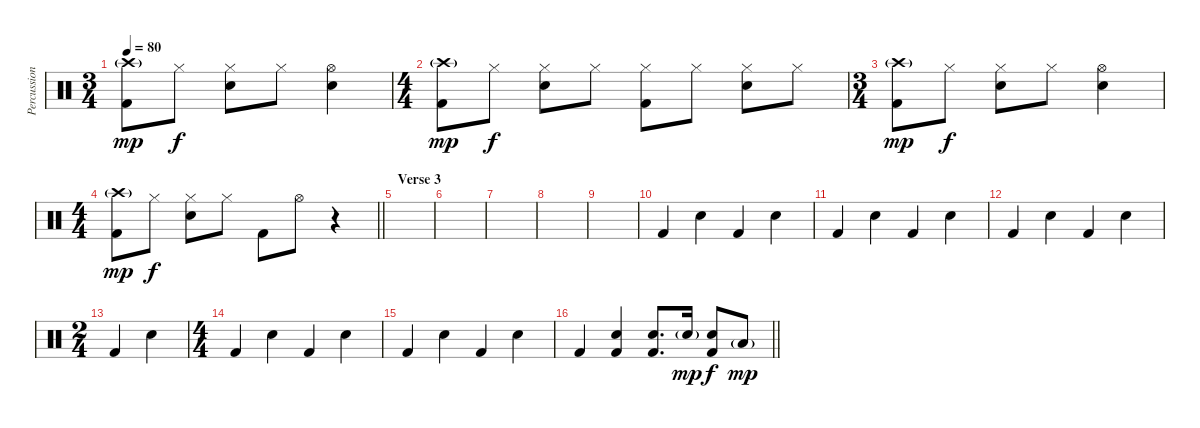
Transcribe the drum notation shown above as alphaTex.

\track ("Percussion" "Percussion") {instrument percussion}
\staff {score}
\articulation defaults
\ts (3 4)
\tempo 80
\clef neutral
\ks c
("Crash high (hit)"{g} "Kick (hit) 2").8{dy mp} "Hi-Hat (closed)".8{dy f} ("Hi-Hat (closed)" "Snare (hit) 2").8 "Hi-Hat (closed)".8 ("Hi-Hat (open)" "Snare (hit) 2").4 |
\ts (4 4)
("Crash high (hit)"{g} "Kick (hit) 2").8{dy mp} "Hi-Hat (closed)".8{dy f} ("Hi-Hat (closed)" "Snare (hit) 2").8 "Hi-Hat (closed)".8 ("Hi-Hat (closed)" "Kick (hit) 2").8 "Hi-Hat (closed)".8 ("Hi-Hat (closed)" "Snare (hit) 2").8 "Hi-Hat (closed)".8 |
\ts (3 4)
("Crash high (hit)"{g} "Kick (hit) 2").8{dy mp} "Hi-Hat (closed)".8{dy f} ("Hi-Hat (closed)" "Snare (hit) 2").8 "Hi-Hat (closed)".8 ("Hi-Hat (open)" "Snare (hit) 2").4 |
\ts (4 4)
\barLineRight lightlight
("Crash high (hit)"{g} "Kick (hit) 2").8{dy mp} "Hi-Hat (closed)".8{dy f} ("Hi-Hat (closed)" "Snare (hit) 2").8 "Hi-Hat (closed)".8 "Kick (hit) 2".8 "Hi-Hat (open)".8 r.4 |
\section ("" "Verse 3")
|
|
|
|
|
"Kick (hit) 2".4 "Snare (hit) 2".4 "Kick (hit) 2".4 "Snare (hit) 2".4 |
"Kick (hit) 2".4 "Snare (hit) 2".4 "Kick (hit) 2".4 "Snare (hit) 2".4 |
"Kick (hit) 2".4 "Snare (hit) 2".4 "Kick (hit) 2".4 "Snare (hit) 2".4 |
\ts (2 4)
"Kick (hit) 2".4 "Snare (hit) 2".4 |
\ts (4 4)
"Kick (hit) 2".4 "Snare (hit) 2".4 "Kick (hit) 2".4 "Snare (hit) 2".4 |
"Kick (hit) 2".4 "Snare (hit) 2".4 "Kick (hit) 2".4 "Snare (hit) 2".4 |
\barLineRight lightlight "Kick (hit) 2".4
("Snare (hit) 2" "Kick (hit) 2").4 ("Snare (hit) 2" "Kick (hit) 2").8{d} "Snare (hit) 2"{g}.16{dy mp} ("Snare (hit) 2" "Kick (hit) 2").8{dy f} "Low Floor Tom (hit)"{g}.8{dy mp}
